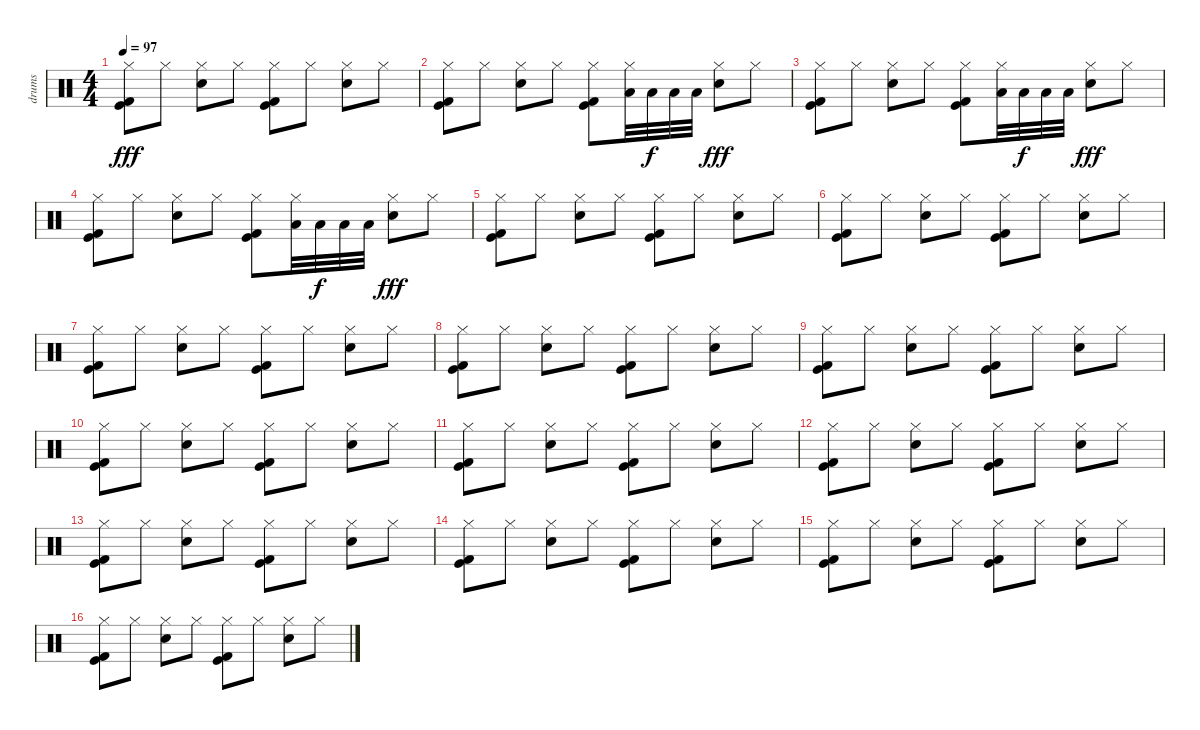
\track ("drums" "drums") {instrument percussion}
\staff {score}
\articulation defaults
\ts (4 4)
\tempo 97
\clef neutral
\ks c
("Kick (hit)" "Kick (hit) 2" "Hi-Hat (closed)").8{dy fff} "Hi-Hat (closed)".8 ("Hi-Hat (closed)" "Electric Snare (hit)").8 "Hi-Hat (closed)".8 ("Kick (hit)" "Kick (hit) 2" "Hi-Hat (closed)").8 "Hi-Hat (closed)".8 ("Hi-Hat (closed)" "Electric Snare (hit)").8 "Hi-Hat (closed)".8 |
("Kick (hit)" "Kick (hit) 2" "Hi-Hat (closed)").8 "Hi-Hat (closed)".8 ("Hi-Hat (closed)" "Electric Snare (hit)").8 "Hi-Hat (closed)".8 ("Kick (hit)" "Kick (hit) 2" "Hi-Hat (closed)").8 ("Hi-Hat (closed)" "Low Floor Tom (hit)").32 "Low Floor Tom (hit)".32{dy f} "Low Floor Tom (hit)".32 "Low Floor Tom (hit)".32 ("Hi-Hat (closed)" "Electric Snare (hit)").8{dy fff} "Hi-Hat (closed)".8 |
("Kick (hit)" "Kick (hit) 2" "Hi-Hat (closed)").8 "Hi-Hat (closed)".8 ("Hi-Hat (closed)" "Electric Snare (hit)").8 "Hi-Hat (closed)".8 ("Kick (hit)" "Kick (hit) 2" "Hi-Hat (closed)").8 ("Hi-Hat (closed)" "Low Floor Tom (hit)").32 "Low Floor Tom (hit)".32{dy f} "Low Floor Tom (hit)".32 "Low Floor Tom (hit)".32 ("Hi-Hat (closed)" "Electric Snare (hit)").8{dy fff} "Hi-Hat (closed)".8 |
("Kick (hit)" "Kick (hit) 2" "Hi-Hat (closed)").8 "Hi-Hat (closed)".8 ("Hi-Hat (closed)" "Electric Snare (hit)").8 "Hi-Hat (closed)".8 ("Kick (hit)" "Kick (hit) 2" "Hi-Hat (closed)").8 ("Hi-Hat (closed)" "Low Floor Tom (hit)").32 "Low Floor Tom (hit)".32{dy f} "Low Floor Tom (hit)".32 "Low Floor Tom (hit)".32 ("Hi-Hat (closed)" "Electric Snare (hit)").8{dy fff} "Hi-Hat (closed)".8 |
("Kick (hit)" "Kick (hit) 2" "Hi-Hat (closed)").8 "Hi-Hat (closed)".8 ("Hi-Hat (closed)" "Electric Snare (hit)").8 "Hi-Hat (closed)".8 ("Kick (hit)" "Kick (hit) 2" "Hi-Hat (closed)").8 "Hi-Hat (closed)".8 ("Hi-Hat (closed)" "Electric Snare (hit)").8 "Hi-Hat (closed)".8 |
("Kick (hit)" "Kick (hit) 2" "Hi-Hat (closed)").8 "Hi-Hat (closed)".8 ("Hi-Hat (closed)" "Electric Snare (hit)").8 "Hi-Hat (closed)".8 ("Kick (hit)" "Kick (hit) 2" "Hi-Hat (closed)").8 "Hi-Hat (closed)".8 ("Hi-Hat (closed)" "Electric Snare (hit)").8 "Hi-Hat (closed)".8 |
("Kick (hit)" "Kick (hit) 2" "Hi-Hat (closed)").8 "Hi-Hat (closed)".8 ("Hi-Hat (closed)" "Electric Snare (hit)").8 "Hi-Hat (closed)".8 ("Kick (hit)" "Kick (hit) 2" "Hi-Hat (closed)").8 "Hi-Hat (closed)".8 ("Hi-Hat (closed)" "Electric Snare (hit)").8 "Hi-Hat (closed)".8 |
("Kick (hit)" "Kick (hit) 2" "Hi-Hat (closed)").8 "Hi-Hat (closed)".8 ("Hi-Hat (closed)" "Electric Snare (hit)").8 "Hi-Hat (closed)".8 ("Kick (hit)" "Kick (hit) 2" "Hi-Hat (closed)").8 "Hi-Hat (closed)".8 ("Hi-Hat (closed)" "Electric Snare (hit)").8 "Hi-Hat (closed)".8 |
("Kick (hit)" "Kick (hit) 2" "Hi-Hat (closed)").8 "Hi-Hat (closed)".8 ("Hi-Hat (closed)" "Electric Snare (hit)").8 "Hi-Hat (closed)".8 ("Kick (hit)" "Kick (hit) 2" "Hi-Hat (closed)").8 "Hi-Hat (closed)".8 ("Hi-Hat (closed)" "Electric Snare (hit)").8 "Hi-Hat (closed)".8 |
("Kick (hit)" "Kick (hit) 2" "Hi-Hat (closed)").8 "Hi-Hat (closed)".8 ("Hi-Hat (closed)" "Electric Snare (hit)").8 "Hi-Hat (closed)".8 ("Kick (hit)" "Kick (hit) 2" "Hi-Hat (closed)").8 "Hi-Hat (closed)".8 ("Hi-Hat (closed)" "Electric Snare (hit)").8 "Hi-Hat (closed)".8 |
("Kick (hit)" "Kick (hit) 2" "Hi-Hat (closed)").8 "Hi-Hat (closed)".8 ("Hi-Hat (closed)" "Electric Snare (hit)").8 "Hi-Hat (closed)".8 ("Kick (hit)" "Kick (hit) 2" "Hi-Hat (closed)").8 "Hi-Hat (closed)".8 ("Hi-Hat (closed)" "Electric Snare (hit)").8 "Hi-Hat (closed)".8 |
("Kick (hit)" "Kick (hit) 2" "Hi-Hat (closed)").8 "Hi-Hat (closed)".8 ("Hi-Hat (closed)" "Electric Snare (hit)").8 "Hi-Hat (closed)".8 ("Kick (hit)" "Kick (hit) 2" "Hi-Hat (closed)").8 "Hi-Hat (closed)".8 ("Hi-Hat (closed)" "Electric Snare (hit)").8 "Hi-Hat (closed)".8 |
("Hi-Hat (closed)" "Kick (hit)" "Kick (hit) 2").8 "Hi-Hat (closed)".8 ("Hi-Hat (closed)" "Electric Snare (hit)").8 "Hi-Hat (closed)".8 ("Hi-Hat (closed)" "Kick (hit)" "Kick (hit) 2").8 "Hi-Hat (closed)".8 ("Hi-Hat (closed)" "Electric Snare (hit)").8 "Hi-Hat (closed)".8 |
("Kick (hit)" "Kick (hit) 2" "Hi-Hat (closed)").8 "Hi-Hat (closed)".8 ("Hi-Hat (closed)" "Electric Snare (hit)").8 "Hi-Hat (closed)".8 ("Kick (hit)" "Kick (hit) 2" "Hi-Hat (closed)").8 "Hi-Hat (closed)".8 ("Hi-Hat (closed)" "Electric Snare (hit)").8 "Hi-Hat (closed)".8 |
("Hi-Hat (closed)" "Kick (hit)" "Kick (hit) 2").8 "Hi-Hat (closed)".8 ("Hi-Hat (closed)" "Electric Snare (hit)").8 "Hi-Hat (closed)".8 ("Hi-Hat (closed)" "Kick (hit)" "Kick (hit) 2").8 "Hi-Hat (closed)".8 ("Hi-Hat (closed)" "Electric Snare (hit)").8 "Hi-Hat (closed)".8 |
("Kick (hit)" "Kick (hit) 2" "Hi-Hat (closed)").8 "Hi-Hat (closed)".8 ("Hi-Hat (closed)" "Electric Snare (hit)").8 "Hi-Hat (closed)".8 ("Kick (hit)" "Kick (hit) 2" "Hi-Hat (closed)").8 "Hi-Hat (closed)".8 ("Hi-Hat (closed)" "Electric Snare (hit)").8 "Hi-Hat (closed)".8
